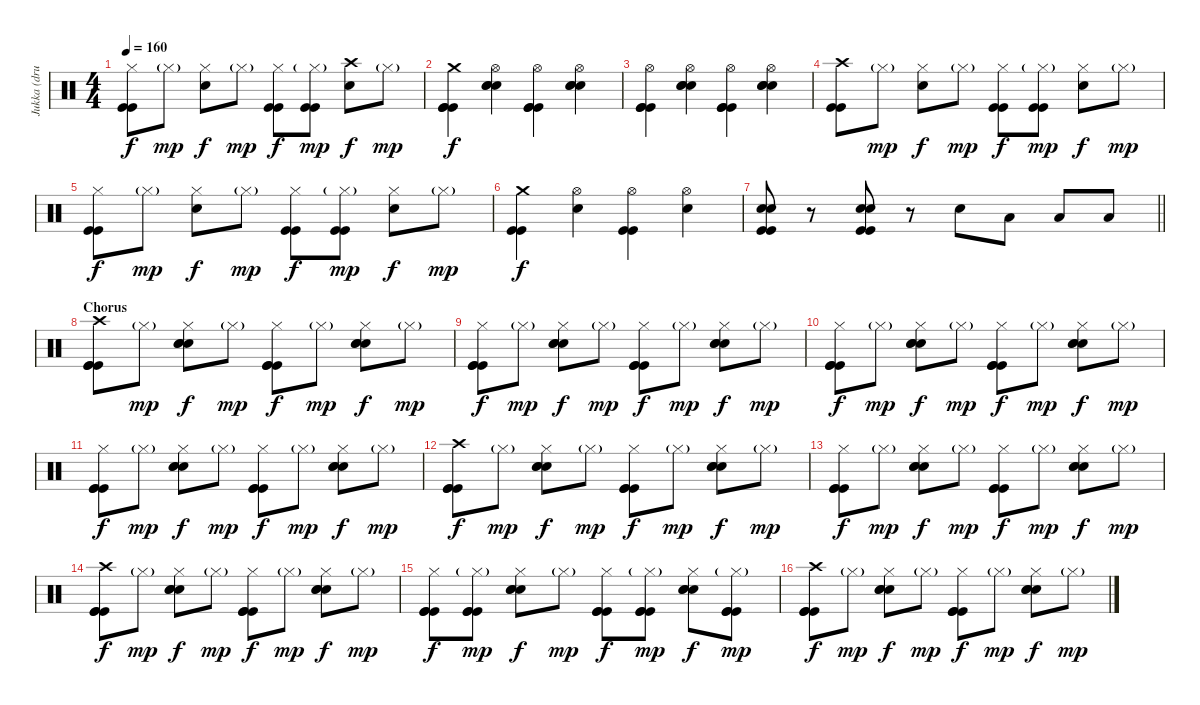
\track ("Jukka (drums)" "Jukka (dru") {instrument percussion}
\staff {score}
\articulation defaults
\ts (4 4)
\tempo 160
\clef neutral
\ks c
("Hi-Hat (closed)" "Kick (hit)" "Kick (hit)").8{dy f} "Hi-Hat (closed)"{g}.8{dy mp} ("Hi-Hat (closed)" "Electric Snare (hit)").8{dy f} "Hi-Hat (closed)"{g}.8{dy mp} ("Hi-Hat (closed)" "Kick (hit)" "Kick (hit)").8{dy f} ("Hi-Hat (closed)"{g} "Kick (hit)" "Kick (hit)").8{dy mp} ("Crash high (hit)" "Electric Snare (hit)").8{dy f} "Hi-Hat (closed)"{g}.8{dy mp} |
("Crash medium (hit)" "Kick (hit)" "Kick (hit)" "Kick (hit)").4{dy f} ("Hi-Hat (open)" "Electric Snare (hit)" "Electric Snare (hit)" "Electric Snare (hit)").4 ("Hi-Hat (open)" "Kick (hit)" "Kick (hit)" "Kick (hit)").4 ("Hi-Hat (open)" "Electric Snare (hit)" "Electric Snare (hit)" "Electric Snare (hit)").4 |
("Hi-Hat (open)" "Kick (hit)" "Kick (hit)" "Kick (hit)").4 ("Hi-Hat (open)" "Electric Snare (hit)" "Electric Snare (hit)" "Electric Snare (hit)").4 ("Hi-Hat (open)" "Kick (hit)" "Kick (hit)" "Kick (hit)").4 ("Hi-Hat (open)" "Electric Snare (hit)" "Electric Snare (hit)" "Electric Snare (hit)").4 |
("Crash high (hit)" "Kick (hit)" "Kick (hit)").8 "Hi-Hat (closed)"{g}.8{dy mp} ("Hi-Hat (closed)" "Electric Snare (hit)").8{dy f} "Hi-Hat (closed)"{g}.8{dy mp} ("Hi-Hat (closed)" "Kick (hit)" "Kick (hit)").8{dy f} ("Hi-Hat (closed)"{g} "Kick (hit)" "Kick (hit)").8{dy mp} ("Hi-Hat (closed)" "Electric Snare (hit)").8{dy f} "Hi-Hat (closed)"{g}.8{dy mp} |
("Hi-Hat (closed)" "Kick (hit)" "Kick (hit)").8{dy f} "Hi-Hat (closed)"{g}.8{dy mp} ("Hi-Hat (closed)" "Electric Snare (hit)").8{dy f} "Hi-Hat (closed)"{g}.8{dy mp} ("Hi-Hat (closed)" "Kick (hit)" "Kick (hit)").8{dy f} ("Hi-Hat (closed)"{g} "Kick (hit)" "Kick (hit)").8{dy mp} ("Hi-Hat (closed)" "Electric Snare (hit)").8{dy f} "Hi-Hat (closed)"{g}.8{dy mp} |
("Crash medium (hit)" "Kick (hit)" "Kick (hit)").4{dy f} ("Hi-Hat (open)" "Electric Snare (hit)").4 ("Hi-Hat (open)" "Kick (hit)" "Kick (hit)").4 ("Hi-Hat (open)" "Electric Snare (hit)").4 |
\barLineRight lightlight
("Electric Snare (hit)" "Electric Snare (hit)" "Kick (hit)" "Kick (hit)").8 r.8 ("Electric Snare (hit)" "Electric Snare (hit)" "Kick (hit)" "Kick (hit)").8 r.8 "Electric Snare (hit)".8 "Low Tom (hit)".8 "Low Floor Tom (hit)".8 "Low Floor Tom (hit)".8 |
\section ("" "Chorus")
("Crash high (hit)" "Kick (hit)" "Kick (hit)" "Kick (hit)").8 "Hi-Hat (closed)"{g}.8{dy mp} ("Hi-Hat (closed)" "Electric Snare (hit)" "Electric Snare (hit)" "Electric Snare (hit)").8{dy f} "Hi-Hat (closed)"{g}.8{dy mp} ("Hi-Hat (closed)" "Kick (hit)" "Kick (hit)" "Kick (hit)").8{dy f} "Hi-Hat (closed)"{g}.8{dy mp} ("Hi-Hat (closed)" "Electric Snare (hit)" "Electric Snare (hit)" "Electric Snare (hit)").8{dy f} "Hi-Hat (closed)"{g}.8{dy mp} |
("Hi-Hat (closed)" "Kick (hit)" "Kick (hit)" "Kick (hit)").8{dy f} "Hi-Hat (closed)"{g}.8{dy mp} ("Hi-Hat (closed)" "Electric Snare (hit)" "Electric Snare (hit)" "Electric Snare (hit)").8{dy f} "Hi-Hat (closed)"{g}.8{dy mp} ("Hi-Hat (closed)" "Kick (hit)" "Kick (hit)" "Kick (hit)").8{dy f} "Hi-Hat (closed)"{g}.8{dy mp} ("Hi-Hat (closed)" "Electric Snare (hit)" "Electric Snare (hit)" "Electric Snare (hit)").8{dy f} "Hi-Hat (closed)"{g}.8{dy mp} |
("Hi-Hat (closed)" "Kick (hit)" "Kick (hit)" "Kick (hit)").8{dy f} "Hi-Hat (closed)"{g}.8{dy mp} ("Hi-Hat (closed)" "Electric Snare (hit)" "Electric Snare (hit)" "Electric Snare (hit)").8{dy f} "Hi-Hat (closed)"{g}.8{dy mp} ("Hi-Hat (closed)" "Kick (hit)" "Kick (hit)" "Kick (hit)").8{dy f} "Hi-Hat (closed)"{g}.8{dy mp} ("Hi-Hat (closed)" "Electric Snare (hit)" "Electric Snare (hit)" "Electric Snare (hit)").8{dy f} "Hi-Hat (closed)"{g}.8{dy mp} |
("Hi-Hat (closed)" "Kick (hit)" "Kick (hit)" "Kick (hit)").8{dy f} "Hi-Hat (closed)"{g}.8{dy mp} ("Hi-Hat (closed)" "Electric Snare (hit)" "Electric Snare (hit)" "Electric Snare (hit)").8{dy f} "Hi-Hat (closed)"{g}.8{dy mp} ("Hi-Hat (closed)" "Kick (hit)" "Kick (hit)" "Kick (hit)").8{dy f} "Hi-Hat (closed)"{g}.8{dy mp} ("Hi-Hat (closed)" "Electric Snare (hit)" "Electric Snare (hit)" "Electric Snare (hit)").8{dy f} "Hi-Hat (closed)"{g}.8{dy mp} |
("Crash high (hit)" "Kick (hit)" "Kick (hit)" "Kick (hit)").8{dy f} "Hi-Hat (closed)"{g}.8{dy mp} ("Hi-Hat (closed)" "Electric Snare (hit)" "Electric Snare (hit)" "Electric Snare (hit)").8{dy f} "Hi-Hat (closed)"{g}.8{dy mp} ("Hi-Hat (closed)" "Kick (hit)" "Kick (hit)" "Kick (hit)").8{dy f} "Hi-Hat (closed)"{g}.8{dy mp} ("Hi-Hat (closed)" "Electric Snare (hit)" "Electric Snare (hit)" "Electric Snare (hit)").8{dy f} "Hi-Hat (closed)"{g}.8{dy mp} |
("Hi-Hat (closed)" "Kick (hit)" "Kick (hit)" "Kick (hit)").8{dy f} "Hi-Hat (closed)"{g}.8{dy mp} ("Hi-Hat (closed)" "Electric Snare (hit)" "Electric Snare (hit)" "Electric Snare (hit)").8{dy f} "Hi-Hat (closed)"{g}.8{dy mp} ("Hi-Hat (closed)" "Kick (hit)" "Kick (hit)" "Kick (hit)").8{dy f} "Hi-Hat (closed)"{g}.8{dy mp} ("Hi-Hat (closed)" "Electric Snare (hit)" "Electric Snare (hit)" "Electric Snare (hit)").8{dy f} "Hi-Hat (closed)"{g}.8{dy mp} |
("Crash high (hit)" "Kick (hit)" "Kick (hit)" "Kick (hit)").8{dy f} "Hi-Hat (closed)"{g}.8{dy mp} ("Hi-Hat (closed)" "Electric Snare (hit)" "Electric Snare (hit)" "Electric Snare (hit)").8{dy f} "Hi-Hat (closed)"{g}.8{dy mp} ("Hi-Hat (closed)" "Kick (hit)" "Kick (hit)" "Kick (hit)").8{dy f} "Hi-Hat (closed)"{g}.8{dy mp} ("Hi-Hat (closed)" "Electric Snare (hit)" "Electric Snare (hit)" "Electric Snare (hit)").8{dy f} "Hi-Hat (closed)"{g}.8{dy mp} |
("Hi-Hat (closed)" "Kick (hit)" "Kick (hit)" "Kick (hit)").8{dy f} ("Hi-Hat (closed)"{g} "Kick (hit)" "Kick (hit)" "Kick (hit)").8{dy mp} ("Hi-Hat (closed)" "Electric Snare (hit)" "Electric Snare (hit)" "Electric Snare (hit)").8{dy f} "Hi-Hat (closed)"{g}.8{dy mp} ("Hi-Hat (closed)" "Kick (hit)" "Kick (hit)" "Kick (hit)").8{dy f} ("Hi-Hat (closed)"{g} "Kick (hit)" "Kick (hit)" "Kick (hit)").8{dy mp} ("Hi-Hat (closed)" "Electric Snare (hit)" "Electric Snare (hit)" "Electric Snare (hit)").8{dy f} ("Hi-Hat (closed)"{g} "Kick (hit)" "Kick (hit)" "Kick (hit)").8{dy mp} |
("Crash high (hit)" "Kick (hit)" "Kick (hit)" "Kick (hit)").8{dy f} "Hi-Hat (closed)"{g}.8{dy mp} ("Hi-Hat (closed)" "Electric Snare (hit)" "Electric Snare (hit)" "Electric Snare (hit)").8{dy f} "Hi-Hat (closed)"{g}.8{dy mp} ("Hi-Hat (closed)" "Kick (hit)" "Kick (hit)" "Kick (hit)").8{dy f} "Hi-Hat (closed)"{g}.8{dy mp} ("Hi-Hat (closed)" "Electric Snare (hit)" "Electric Snare (hit)" "Electric Snare (hit)").8{dy f} "Hi-Hat (closed)"{g}.8{dy mp}
